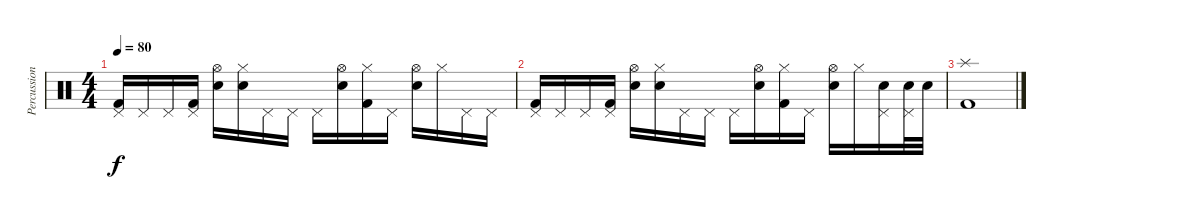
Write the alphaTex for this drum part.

\track ("Percussions" "Percussion") {instrument percussion}
\staff {score}
\articulation defaults
\ts (4 4)
\tempo 80
\clef neutral
\ks c
("Pedal Hi-Hat (hit)" "Kick (hit) 2").16{dy f} "Pedal Hi-Hat (hit)".16 "Pedal Hi-Hat (hit)".16 ("Pedal Hi-Hat (hit)" "Kick (hit) 2").16 ("Hi-Hat (open)" "Electric Snare (hit)").16 ("Hi-Hat (closed)" "Electric Snare (hit)").16 "Pedal Hi-Hat (hit)".16 "Pedal Hi-Hat (hit)".16 "Pedal Hi-Hat (hit)".16 ("Hi-Hat (open)" "Electric Snare (hit)").16 ("Hi-Hat (closed)" "Kick (hit) 2").16 "Pedal Hi-Hat (hit)".16 ("Hi-Hat (open)" "Electric Snare (hit)").16 "Hi-Hat (closed)".16 "Pedal Hi-Hat (hit)".16 "Pedal Hi-Hat (hit)".16 |
("Pedal Hi-Hat (hit)" "Kick (hit) 2").16 "Pedal Hi-Hat (hit)".16 "Pedal Hi-Hat (hit)".16 ("Pedal Hi-Hat (hit)" "Kick (hit) 2").16 ("Hi-Hat (open)" "Electric Snare (hit)").16 ("Hi-Hat (closed)" "Electric Snare (hit)").16 "Pedal Hi-Hat (hit)".16 "Pedal Hi-Hat (hit)".16 "Pedal Hi-Hat (hit)".16 ("Hi-Hat (open)" "Electric Snare (hit)").16 ("Hi-Hat (closed)" "Kick (hit) 2").16 "Pedal Hi-Hat (hit)".16 ("Hi-Hat (open)" "Electric Snare (hit)").16 "Hi-Hat (closed)".16 ("Pedal Hi-Hat (hit)" "Electric Snare (hit)").16 ("Pedal Hi-Hat (hit)" "Electric Snare (hit)").32 "Electric Snare (hit)".32 |
("Splash (hit)" "Kick (hit) 2").1
